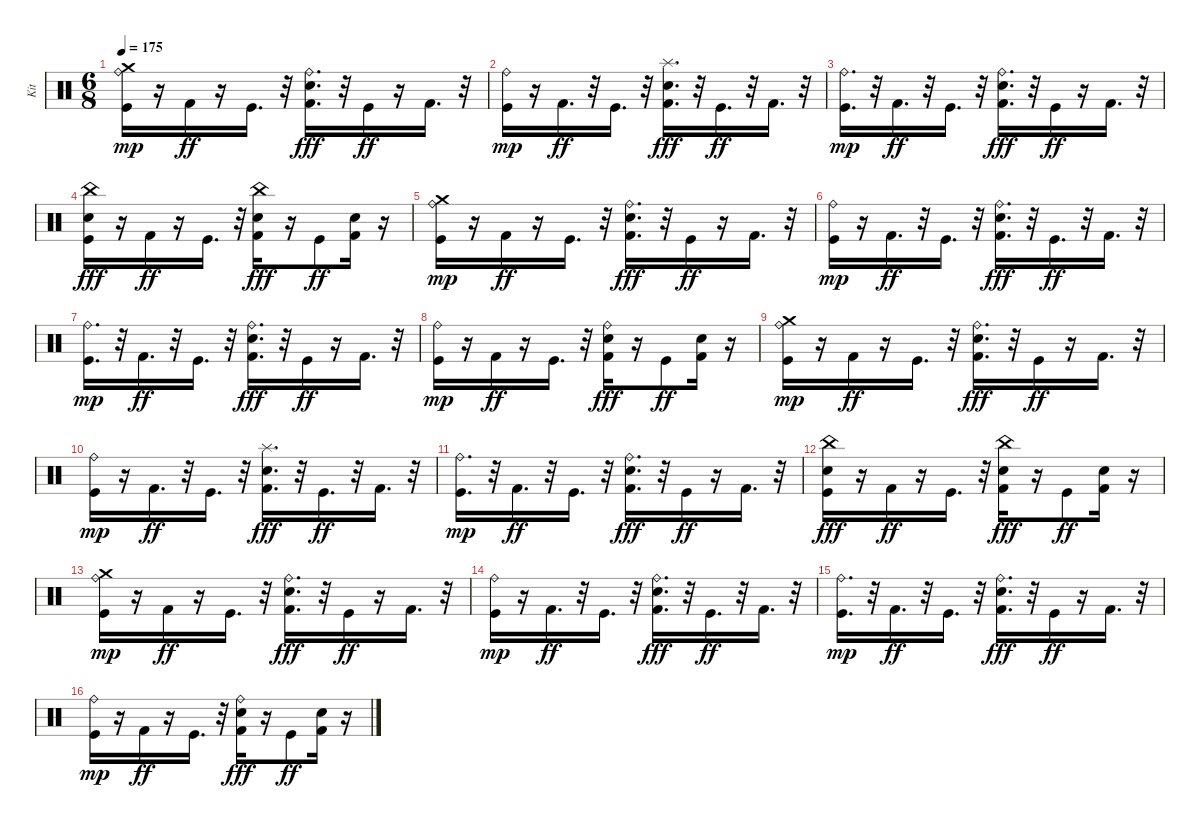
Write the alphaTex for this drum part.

\track ("Kit" "Kit") {instrument percussion}
\staff {score}
\articulation defaults
\ts (6 8)
\tempo 175
\clef neutral
\ks c
("Kick (hit)" "Ride (bell)" "Crash medium (hit)").16{dy mp} r.16 "Kick (hit) 2".16{dy ff} r.16 "Kick (hit)".16{d} r.32 ("Kick (hit) 2" "Snare (hit) 2" "Ride (bell)").16{d dy fff} r.32 "Kick (hit)".16{dy ff} r.16 "Kick (hit) 2".16{d} r.32 |
("Kick (hit)" "Ride (bell)").16{dy mp} r.16 "Kick (hit) 2".16{d dy ff} r.32 "Kick (hit)".16{d} r.32 ("Kick (hit) 2" "Snare (hit) 2" "Splash (hit)").16{d dy fff} r.32 "Kick (hit)".16{d dy ff} r.32 "Kick (hit) 2".16{d} r.32 |
("Kick (hit)" "Ride (bell)").16{d dy mp} r.32 "Kick (hit) 2".16{d dy ff} r.32 "Kick (hit)".16{d} r.32 ("Kick (hit) 2" "Snare (hit) 2" "Ride (bell)").16{d dy fff} r.32 "Kick (hit)".16{dy ff} r.16 "Kick (hit) 2".16{d} r.32 |
("Kick (hit)" "Snare (hit) 2" "China (hit)").16{dy fff} r.16 "Kick (hit) 2".16{dy ff} r.16 "Kick (hit)".16{d} r.32 ("Kick (hit) 2" "Snare (hit) 2" "China (hit)").16{dy fff} r.16 "Kick (hit)".8{dy ff} ("Kick (hit) 2" "Snare (hit) 2").16 r.16 |
("Kick (hit)" "Ride (bell)" "Crash medium (hit)").16{dy mp} r.16 "Kick (hit) 2".16{dy ff} r.16 "Kick (hit)".16{d} r.32 ("Kick (hit) 2" "Snare (hit) 2" "Ride (bell)").16{d dy fff} r.32 "Kick (hit)".16{dy ff} r.16 "Kick (hit) 2".16{d} r.32 |
("Kick (hit)" "Ride (bell)").16{dy mp} r.16 "Kick (hit) 2".16{d dy ff} r.32 "Kick (hit)".16{d} r.32 ("Kick (hit) 2" "Snare (hit) 2" "Ride (bell)").16{d dy fff} r.32 "Kick (hit)".16{d dy ff} r.32 "Kick (hit) 2".16{d} r.32 |
("Kick (hit)" "Ride (bell)").16{d dy mp} r.32 "Kick (hit) 2".16{d dy ff} r.32 "Kick (hit)".16{d} r.32 ("Kick (hit) 2" "Snare (hit) 2" "Ride (bell)").16{d dy fff} r.32 "Kick (hit)".16{dy ff} r.16 "Kick (hit) 2".16{d} r.32 |
("Kick (hit)" "Ride (bell)").16{dy mp} r.16 "Kick (hit) 2".16{dy ff} r.16 "Kick (hit)".16{d} r.32 ("Kick (hit) 2" "Snare (hit) 2" "Ride (bell)").16{dy fff} r.16 "Kick (hit)".8{dy ff} ("Kick (hit) 2" "Snare (hit) 2").16 r.16 |
("Kick (hit)" "Ride (bell)" "Crash medium (hit)").16{dy mp} r.16 "Kick (hit) 2".16{dy ff} r.16 "Kick (hit)".16{d} r.32 ("Kick (hit) 2" "Snare (hit) 2" "Ride (bell)").16{d dy fff} r.32 "Kick (hit)".16{dy ff} r.16 "Kick (hit) 2".16{d} r.32 |
("Kick (hit)" "Ride (bell)").16{dy mp} r.16 "Kick (hit) 2".16{d dy ff} r.32 "Kick (hit)".16{d} r.32 ("Kick (hit) 2" "Snare (hit) 2" "Splash (hit)").16{d dy fff} r.32 "Kick (hit)".16{d dy ff} r.32 "Kick (hit) 2".16{d} r.32 |
("Kick (hit)" "Ride (bell)").16{d dy mp} r.32 "Kick (hit) 2".16{d dy ff} r.32 "Kick (hit)".16{d} r.32 ("Kick (hit) 2" "Snare (hit) 2" "Ride (bell)").16{d dy fff} r.32 "Kick (hit)".16{dy ff} r.16 "Kick (hit) 2".16{d} r.32 |
("Kick (hit)" "Snare (hit) 2" "China (hit)").16{dy fff} r.16 "Kick (hit) 2".16{dy ff} r.16 "Kick (hit)".16{d} r.32 ("Kick (hit) 2" "Snare (hit) 2" "China (hit)").16{dy fff} r.16 "Kick (hit)".8{dy ff} ("Kick (hit) 2" "Snare (hit) 2").16 r.16 |
("Kick (hit)" "Ride (bell)" "Crash medium (hit)").16{dy mp} r.16 "Kick (hit) 2".16{dy ff} r.16 "Kick (hit)".16{d} r.32 ("Kick (hit) 2" "Snare (hit) 2" "Ride (bell)").16{d dy fff} r.32 "Kick (hit)".16{dy ff} r.16 "Kick (hit) 2".16{d} r.32 |
("Kick (hit)" "Ride (bell)").16{dy mp} r.16 "Kick (hit) 2".16{d dy ff} r.32 "Kick (hit)".16{d} r.32 ("Kick (hit) 2" "Snare (hit) 2" "Ride (bell)").16{d dy fff} r.32 "Kick (hit)".16{d dy ff} r.32 "Kick (hit) 2".16{d} r.32 |
("Kick (hit)" "Ride (bell)").16{d dy mp} r.32 "Kick (hit) 2".16{d dy ff} r.32 "Kick (hit)".16{d} r.32 ("Kick (hit) 2" "Snare (hit) 2" "Ride (bell)").16{d dy fff} r.32 "Kick (hit)".16{dy ff} r.16 "Kick (hit) 2".16{d} r.32 |
("Kick (hit)" "Ride (bell)").16{dy mp} r.16 "Kick (hit) 2".16{dy ff} r.16 "Kick (hit)".16{d} r.32 ("Kick (hit) 2" "Snare (hit) 2" "Ride (bell)").16{dy fff} r.16 "Kick (hit)".8{dy ff} ("Kick (hit) 2" "Snare (hit) 2").16 r.16
